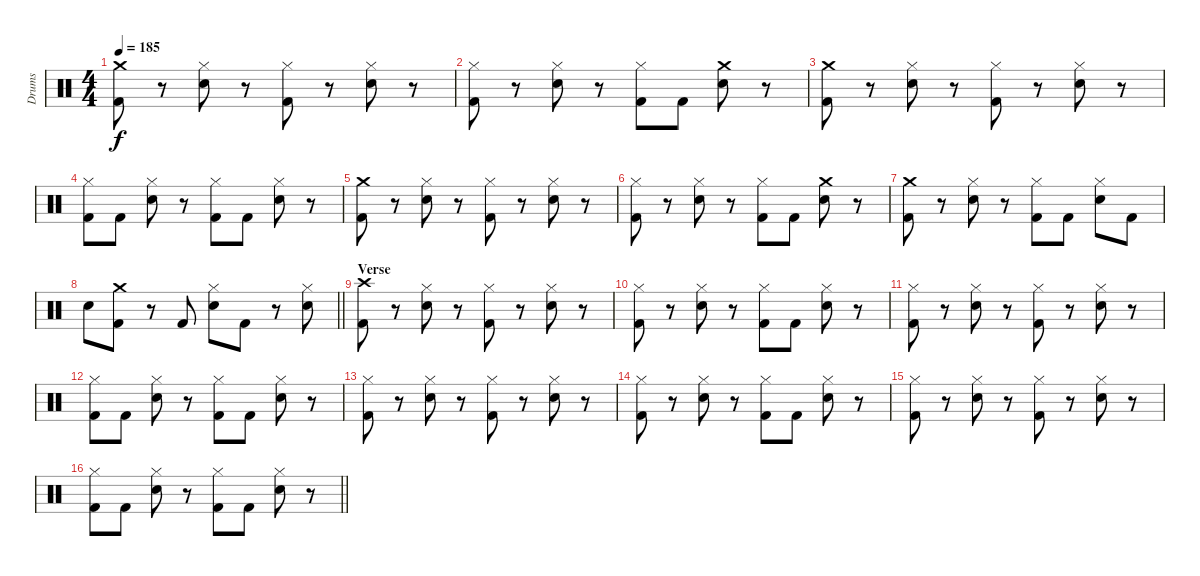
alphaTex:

\track ("Drums" "Drums") {instrument percussion}
\staff {score}
\articulation defaults
\ts (4 4)
\tempo 185
\clef neutral
\ks c
("Crash medium (hit)" "Kick (hit) 2").8{dy f} r.8 ("Hi-Hat (closed)" "Electric Snare (hit)").8 r.8 ("Hi-Hat (closed)" "Kick (hit) 2").8 r.8 ("Hi-Hat (closed)" "Electric Snare (hit)").8 r.8 |
("Hi-Hat (closed)" "Kick (hit) 2").8 r.8 ("Hi-Hat (closed)" "Electric Snare (hit)").8 r.8 ("Hi-Hat (closed)" "Kick (hit) 2").8 "Kick (hit) 2".8 ("Crash medium (hit)" "Electric Snare (hit)").8 r.8 |
("Crash medium (hit)" "Kick (hit) 2").8 r.8 ("Hi-Hat (closed)" "Electric Snare (hit)").8 r.8 ("Hi-Hat (closed)" "Kick (hit) 2").8 r.8 ("Hi-Hat (closed)" "Electric Snare (hit)").8 r.8 |
("Hi-Hat (closed)" "Kick (hit) 2").8 "Kick (hit) 2".8 ("Hi-Hat (closed)" "Electric Snare (hit)").8 r.8 ("Hi-Hat (closed)" "Kick (hit) 2").8 "Kick (hit) 2".8 ("Hi-Hat (closed)" "Electric Snare (hit)").8 r.8 |
("Crash medium (hit)" "Kick (hit) 2").8 r.8 ("Hi-Hat (closed)" "Electric Snare (hit)").8 r.8 ("Hi-Hat (closed)" "Kick (hit) 2").8 r.8 ("Hi-Hat (closed)" "Electric Snare (hit)").8 r.8 |
("Hi-Hat (closed)" "Kick (hit) 2").8 r.8 ("Hi-Hat (closed)" "Electric Snare (hit)").8 r.8 ("Hi-Hat (closed)" "Kick (hit) 2").8 "Kick (hit) 2".8 ("Crash medium (hit)" "Electric Snare (hit)").8 r.8 |
("Crash medium (hit)" "Kick (hit) 2").8 r.8 ("Hi-Hat (closed)" "Electric Snare (hit)").8 r.8 ("Hi-Hat (closed)" "Kick (hit) 2").8 "Kick (hit) 2".8 ("Hi-Hat (closed)" "Electric Snare (hit)").8 "Kick (hit) 2".8 |
\barLineRight lightlight "Electric Snare (hit)".8
("Crash medium (hit)" "Kick (hit) 2").8 r.8 "Kick (hit) 2".8 ("Hi-Hat (closed)" "Electric Snare (hit)").8 "Kick (hit) 2".8 r.8 ("Hi-Hat (closed)" "Electric Snare (hit)").8 |
\section ("" "Verse")
("Crash high (hit)" "Kick (hit) 2").8 r.8 ("Hi-Hat (closed)" "Electric Snare (hit)").8 r.8 ("Hi-Hat (closed)" "Kick (hit) 2").8 r.8 ("Hi-Hat (closed)" "Electric Snare (hit)").8 r.8 |
("Hi-Hat (closed)" "Kick (hit) 2").8 r.8 ("Hi-Hat (closed)" "Electric Snare (hit)").8 r.8 ("Hi-Hat (closed)" "Kick (hit) 2").8 "Kick (hit) 2".8 ("Hi-Hat (closed)" "Electric Snare (hit)").8 r.8 |
("Hi-Hat (closed)" "Kick (hit) 2").8 r.8 ("Hi-Hat (closed)" "Electric Snare (hit)").8 r.8 ("Hi-Hat (closed)" "Kick (hit) 2").8 r.8 ("Hi-Hat (closed)" "Electric Snare (hit)").8 r.8 |
("Hi-Hat (closed)" "Kick (hit) 2").8 "Kick (hit) 2".8 ("Hi-Hat (closed)" "Electric Snare (hit)").8 r.8 ("Hi-Hat (closed)" "Kick (hit) 2").8 "Kick (hit) 2".8 ("Hi-Hat (closed)" "Electric Snare (hit)").8 r.8 |
("Hi-Hat (closed)" "Kick (hit) 2").8 r.8 ("Hi-Hat (closed)" "Electric Snare (hit)").8 r.8 ("Hi-Hat (closed)" "Kick (hit) 2").8 r.8 ("Hi-Hat (closed)" "Electric Snare (hit)").8 r.8 |
("Hi-Hat (closed)" "Kick (hit) 2").8 r.8 ("Hi-Hat (closed)" "Electric Snare (hit)").8 r.8 ("Hi-Hat (closed)" "Kick (hit) 2").8 "Kick (hit) 2".8 ("Hi-Hat (closed)" "Electric Snare (hit)").8 r.8 |
("Hi-Hat (closed)" "Kick (hit) 2").8 r.8 ("Hi-Hat (closed)" "Electric Snare (hit)").8 r.8 ("Hi-Hat (closed)" "Kick (hit) 2").8 r.8 ("Hi-Hat (closed)" "Electric Snare (hit)").8 r.8 |
\barLineRight lightlight
("Hi-Hat (closed)" "Kick (hit) 2").8 "Kick (hit) 2".8 ("Hi-Hat (closed)" "Electric Snare (hit)").8 r.8 ("Hi-Hat (closed)" "Kick (hit) 2").8 "Kick (hit) 2".8 ("Hi-Hat (closed)" "Electric Snare (hit)").8 r.8
